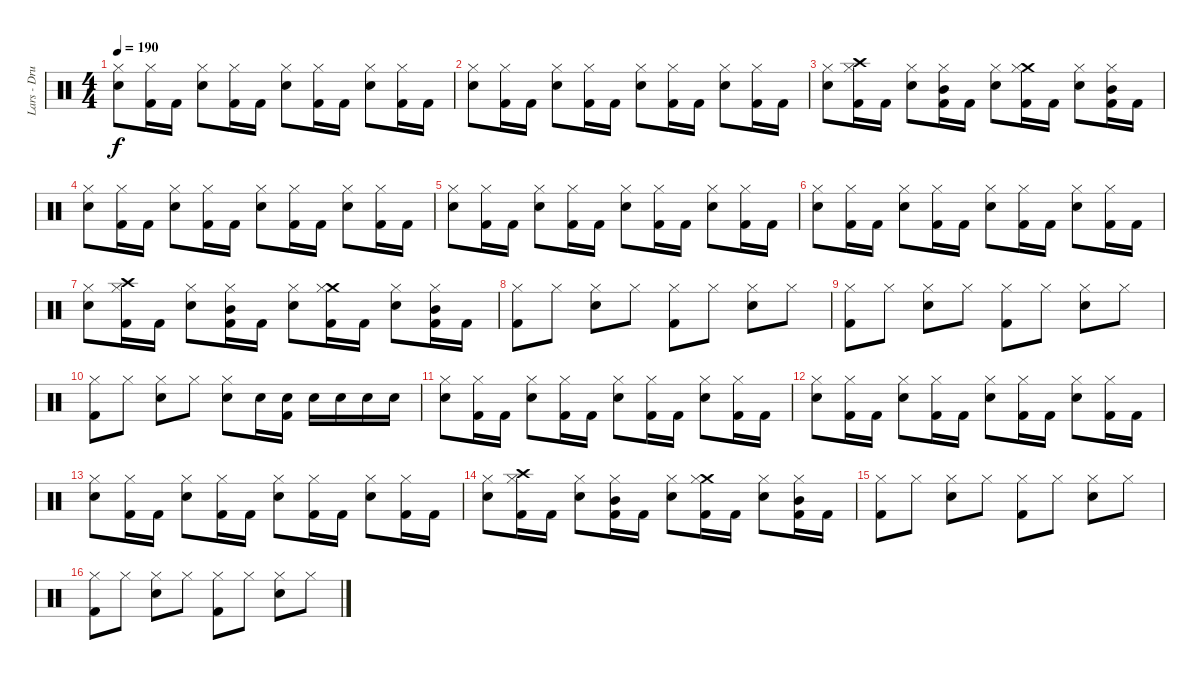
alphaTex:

\track ("Lars - Drums" "Lars - Dru") {instrument percussion}
\staff {score}
\articulation defaults
\ts (4 4)
\tempo 190
\clef neutral
\ks c
("Snare (hit) 2" "Hi-Hat (closed)").8{dy f} ("Kick (hit) 2" "Hi-Hat (closed)").16 "Kick (hit) 2".16 ("Snare (hit) 2" "Hi-Hat (closed)").8 ("Kick (hit) 2" "Hi-Hat (closed)").16 "Kick (hit) 2".16 ("Snare (hit) 2" "Hi-Hat (closed)").8 ("Kick (hit) 2" "Hi-Hat (closed)").16 "Kick (hit) 2".16 ("Snare (hit) 2" "Hi-Hat (closed)").8 ("Kick (hit) 2" "Hi-Hat (closed)").16 "Kick (hit) 2".16 |
("Snare (hit) 2" "Hi-Hat (closed)").8 ("Kick (hit) 2" "Hi-Hat (closed)").16 "Kick (hit) 2".16 ("Snare (hit) 2" "Hi-Hat (closed)").8 ("Kick (hit) 2" "Hi-Hat (closed)").16 "Kick (hit) 2".16 ("Snare (hit) 2" "Hi-Hat (closed)").8 ("Kick (hit) 2" "Hi-Hat (closed)").16 "Kick (hit) 2".16 ("Snare (hit) 2" "Hi-Hat (closed)").8 ("Kick (hit) 2" "Hi-Hat (closed)").16 "Kick (hit) 2".16 |
("Snare (hit) 2" "Hi-Hat (closed)").8 ("Kick (hit) 2" "Crash high (hit)" "Hi-Hat (closed)").16 "Kick (hit) 2".16 ("Snare (hit) 2" "Hi-Hat (closed)").8 ("Kick (hit) 2" "Mid Tom (hit)" "Hi-Hat (closed)").16 "Kick (hit) 2".16 ("Snare (hit) 2" "Hi-Hat (closed)").8 ("Kick (hit) 2" "Crash medium (hit)" "Hi-Hat (closed)").16 "Kick (hit) 2".16 ("Snare (hit) 2" "Hi-Hat (closed)").8 ("Kick (hit) 2" "Mid Tom (hit)" "Hi-Hat (closed)").16 "Kick (hit) 2".16 |
("Snare (hit) 2" "Hi-Hat (closed)").8 ("Kick (hit) 2" "Hi-Hat (closed)").16 "Kick (hit) 2".16 ("Snare (hit) 2" "Hi-Hat (closed)").8 ("Kick (hit) 2" "Hi-Hat (closed)").16 "Kick (hit) 2".16 ("Snare (hit) 2" "Hi-Hat (closed)").8 ("Kick (hit) 2" "Hi-Hat (closed)").16 "Kick (hit) 2".16 ("Snare (hit) 2" "Hi-Hat (closed)").8 ("Kick (hit) 2" "Hi-Hat (closed)").16 "Kick (hit) 2".16 |
("Snare (hit) 2" "Hi-Hat (closed)").8 ("Kick (hit) 2" "Hi-Hat (closed)").16 "Kick (hit) 2".16 ("Snare (hit) 2" "Hi-Hat (closed)").8 ("Kick (hit) 2" "Hi-Hat (closed)").16 "Kick (hit) 2".16 ("Snare (hit) 2" "Hi-Hat (closed)").8 ("Kick (hit) 2" "Hi-Hat (closed)").16 "Kick (hit) 2".16 ("Snare (hit) 2" "Hi-Hat (closed)").8 ("Kick (hit) 2" "Hi-Hat (closed)").16 "Kick (hit) 2".16 |
("Snare (hit) 2" "Hi-Hat (closed)").8 ("Kick (hit) 2" "Hi-Hat (closed)").16 "Kick (hit) 2".16 ("Snare (hit) 2" "Hi-Hat (closed)").8 ("Kick (hit) 2" "Hi-Hat (closed)").16 "Kick (hit) 2".16 ("Snare (hit) 2" "Hi-Hat (closed)").8 ("Kick (hit) 2" "Hi-Hat (closed)").16 "Kick (hit) 2".16 ("Snare (hit) 2" "Hi-Hat (closed)").8 ("Kick (hit) 2" "Hi-Hat (closed)").16 "Kick (hit) 2".16 |
("Snare (hit) 2" "Hi-Hat (closed)").8 ("Kick (hit) 2" "Crash high (hit)" "Hi-Hat (closed)").16 "Kick (hit) 2".16 ("Snare (hit) 2" "Hi-Hat (closed)").8 ("Kick (hit) 2" "Mid Tom (hit)" "Hi-Hat (closed)").16 "Kick (hit) 2".16 ("Snare (hit) 2" "Hi-Hat (closed)").8 ("Kick (hit) 2" "Crash medium (hit)" "Hi-Hat (closed)").16 "Kick (hit) 2".16 ("Snare (hit) 2" "Hi-Hat (closed)").8 ("Kick (hit) 2" "Mid Tom (hit)" "Hi-Hat (closed)").16 "Kick (hit) 2".16 |
("Kick (hit) 2" "Hi-Hat (closed)").8 "Hi-Hat (closed)".8 ("Snare (hit) 2" "Hi-Hat (closed)").8 "Hi-Hat (closed)".8 ("Kick (hit) 2" "Hi-Hat (closed)").8 "Hi-Hat (closed)".8 ("Snare (hit) 2" "Hi-Hat (closed)").8 "Hi-Hat (closed)".8 |
("Kick (hit) 2" "Hi-Hat (closed)").8 "Hi-Hat (closed)".8 ("Snare (hit) 2" "Hi-Hat (closed)").8 "Hi-Hat (closed)".8 ("Kick (hit) 2" "Hi-Hat (closed)").8 "Hi-Hat (closed)".8 ("Snare (hit) 2" "Hi-Hat (closed)").8 "Hi-Hat (closed)".8 |
("Kick (hit) 2" "Hi-Hat (closed)").8 "Hi-Hat (closed)".8 ("Snare (hit) 2" "Hi-Hat (closed)").8 "Hi-Hat (closed)".8 ("Snare (hit) 2" "Hi-Hat (closed)").8 "Snare (hit) 2".16 ("Snare (hit) 2" "Kick (hit) 2").16 "Snare (hit) 2".16 "Snare (hit) 2".16 "Snare (hit) 2".16 "Snare (hit) 2".16 |
("Snare (hit) 2" "Hi-Hat (closed)").8 ("Kick (hit) 2" "Hi-Hat (closed)").16 "Kick (hit) 2".16 ("Snare (hit) 2" "Hi-Hat (closed)").8 ("Kick (hit) 2" "Hi-Hat (closed)").16 "Kick (hit) 2".16 ("Snare (hit) 2" "Hi-Hat (closed)").8 ("Kick (hit) 2" "Hi-Hat (closed)").16 "Kick (hit) 2".16 ("Snare (hit) 2" "Hi-Hat (closed)").8 ("Kick (hit) 2" "Hi-Hat (closed)").16 "Kick (hit) 2".16 |
("Snare (hit) 2" "Hi-Hat (closed)").8 ("Kick (hit) 2" "Hi-Hat (closed)").16 "Kick (hit) 2".16 ("Snare (hit) 2" "Hi-Hat (closed)").8 ("Kick (hit) 2" "Hi-Hat (closed)").16 "Kick (hit) 2".16 ("Snare (hit) 2" "Hi-Hat (closed)").8 ("Kick (hit) 2" "Hi-Hat (closed)").16 "Kick (hit) 2".16 ("Snare (hit) 2" "Hi-Hat (closed)").8 ("Kick (hit) 2" "Hi-Hat (closed)").16 "Kick (hit) 2".16 |
("Snare (hit) 2" "Hi-Hat (closed)").8 ("Kick (hit) 2" "Hi-Hat (closed)").16 "Kick (hit) 2".16 ("Snare (hit) 2" "Hi-Hat (closed)").8 ("Kick (hit) 2" "Hi-Hat (closed)").16 "Kick (hit) 2".16 ("Snare (hit) 2" "Hi-Hat (closed)").8 ("Kick (hit) 2" "Hi-Hat (closed)").16 "Kick (hit) 2".16 ("Snare (hit) 2" "Hi-Hat (closed)").8 ("Kick (hit) 2" "Hi-Hat (closed)").16 "Kick (hit) 2".16 |
("Snare (hit) 2" "Hi-Hat (closed)").8 ("Kick (hit) 2" "Crash high (hit)" "Hi-Hat (closed)").16 "Kick (hit) 2".16 ("Snare (hit) 2" "Hi-Hat (closed)").8 ("Kick (hit) 2" "Mid Tom (hit)" "Hi-Hat (closed)").16 "Kick (hit) 2".16 ("Snare (hit) 2" "Hi-Hat (closed)").8 ("Kick (hit) 2" "Crash medium (hit)" "Hi-Hat (closed)").16 "Kick (hit) 2".16 ("Snare (hit) 2" "Hi-Hat (closed)").8 ("Kick (hit) 2" "Mid Tom (hit)" "Hi-Hat (closed)").16 "Kick (hit) 2".16 |
("Kick (hit) 2" "Hi-Hat (closed)").8 "Hi-Hat (closed)".8 ("Snare (hit) 2" "Hi-Hat (closed)").8 "Hi-Hat (closed)".8 ("Kick (hit) 2" "Hi-Hat (closed)").8 "Hi-Hat (closed)".8 ("Snare (hit) 2" "Hi-Hat (closed)").8 "Hi-Hat (closed)".8 |
("Kick (hit) 2" "Hi-Hat (closed)").8 "Hi-Hat (closed)".8 ("Snare (hit) 2" "Hi-Hat (closed)").8 "Hi-Hat (closed)".8 ("Kick (hit) 2" "Hi-Hat (closed)").8 "Hi-Hat (closed)".8 ("Snare (hit) 2" "Hi-Hat (closed)").8 "Hi-Hat (closed)".8
